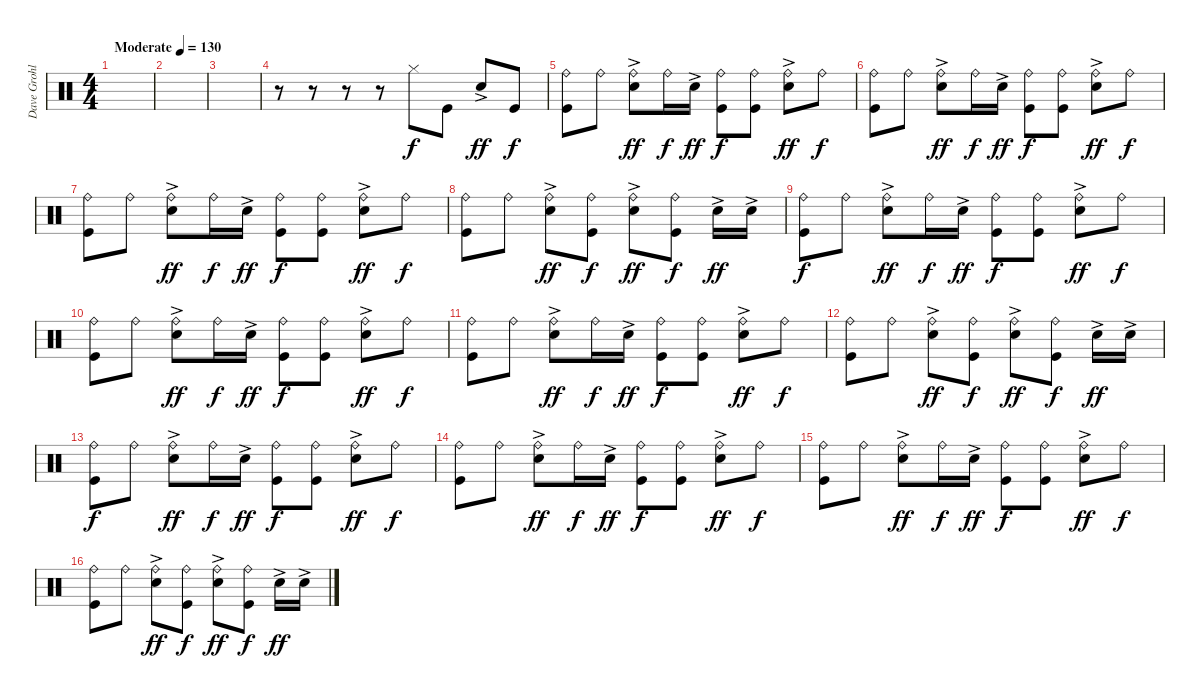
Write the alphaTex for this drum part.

\track ("Dave Grohl" "Dave Grohl") {instrument percussion}
\staff {score}
\articulation defaults
\ts (4 4)
\tempo (130 "Moderate")
\clef neutral
\ks c
|
|
|
r.8 r.8 r.8 r.8 "Hi-Hat (closed)".8 "Kick (hit)".8 "Electric Snare (hit)"{ac}.8{dy ff} "Kick (hit)".8{dy f} |
("Ride (bell)" "Kick (hit)").8 "Ride (bell)".8 ("Ride (bell)" "Electric Snare (hit)"{ac}).8{dy ff} "Ride (bell)".16{dy f} "Electric Snare (hit)"{ac}.16{dy ff} ("Ride (bell)" "Kick (hit)").8{dy f} ("Ride (bell)" "Kick (hit)").8 ("Ride (bell)" "Electric Snare (hit)"{ac}).8{dy ff} "Ride (bell)".8{dy f} |
("Ride (bell)" "Kick (hit)").8 "Ride (bell)".8 ("Ride (bell)" "Electric Snare (hit)"{ac}).8{dy ff} "Ride (bell)".16{dy f} "Electric Snare (hit)"{ac}.16{dy ff} ("Ride (bell)" "Kick (hit)").8{dy f} ("Ride (bell)" "Kick (hit)").8 ("Ride (bell)" "Electric Snare (hit)"{ac}).8{dy ff} "Ride (bell)".8{dy f} |
("Ride (bell)" "Kick (hit)").8 "Ride (bell)".8 ("Ride (bell)" "Electric Snare (hit)"{ac}).8{dy ff} "Ride (bell)".16{dy f} "Electric Snare (hit)"{ac}.16{dy ff} ("Ride (bell)" "Kick (hit)").8{dy f} ("Ride (bell)" "Kick (hit)").8 ("Ride (bell)" "Electric Snare (hit)"{ac}).8{dy ff} "Ride (bell)".8{dy f} |
("Ride (bell)" "Kick (hit)").8 "Ride (bell)".8 ("Ride (bell)" "Electric Snare (hit)"{ac}).8{dy ff} ("Ride (bell)" "Kick (hit)").8{dy f} ("Ride (bell)" "Electric Snare (hit)"{ac}).8{dy ff} ("Ride (bell)" "Kick (hit)").8{dy f} "Electric Snare (hit)"{ac}.16{dy ff} "Electric Snare (hit)"{ac}.16 |
("Ride (bell)" "Kick (hit)").8{dy f} "Ride (bell)".8 ("Ride (bell)" "Electric Snare (hit)"{ac}).8{dy ff} "Ride (bell)".16{dy f} "Electric Snare (hit)"{ac}.16{dy ff} ("Ride (bell)" "Kick (hit)").8{dy f} ("Ride (bell)" "Kick (hit)").8 ("Ride (bell)" "Electric Snare (hit)"{ac}).8{dy ff} "Ride (bell)".8{dy f} |
("Ride (bell)" "Kick (hit)").8 "Ride (bell)".8 ("Ride (bell)" "Electric Snare (hit)"{ac}).8{dy ff} "Ride (bell)".16{dy f} "Electric Snare (hit)"{ac}.16{dy ff} ("Ride (bell)" "Kick (hit)").8{dy f} ("Ride (bell)" "Kick (hit)").8 ("Ride (bell)" "Electric Snare (hit)"{ac}).8{dy ff} "Ride (bell)".8{dy f} |
("Ride (bell)" "Kick (hit)").8 "Ride (bell)".8 ("Ride (bell)" "Electric Snare (hit)"{ac}).8{dy ff} "Ride (bell)".16{dy f} "Electric Snare (hit)"{ac}.16{dy ff} ("Ride (bell)" "Kick (hit)").8{dy f} ("Ride (bell)" "Kick (hit)").8 ("Ride (bell)" "Electric Snare (hit)"{ac}).8{dy ff} "Ride (bell)".8{dy f} |
("Ride (bell)" "Kick (hit)").8 "Ride (bell)".8 ("Ride (bell)" "Electric Snare (hit)"{ac}).8{dy ff} ("Ride (bell)" "Kick (hit)").8{dy f} ("Ride (bell)" "Electric Snare (hit)"{ac}).8{dy ff} ("Ride (bell)" "Kick (hit)").8{dy f} "Electric Snare (hit)"{ac}.16{dy ff} "Electric Snare (hit)"{ac}.16 |
("Ride (bell)" "Kick (hit)").8{dy f} "Ride (bell)".8 ("Ride (bell)" "Electric Snare (hit)"{ac}).8{dy ff} "Ride (bell)".16{dy f} "Electric Snare (hit)"{ac}.16{dy ff} ("Ride (bell)" "Kick (hit)").8{dy f} ("Ride (bell)" "Kick (hit)").8 ("Ride (bell)" "Electric Snare (hit)"{ac}).8{dy ff} "Ride (bell)".8{dy f} |
("Ride (bell)" "Kick (hit)").8 "Ride (bell)".8 ("Ride (bell)" "Electric Snare (hit)"{ac}).8{dy ff} "Ride (bell)".16{dy f} "Electric Snare (hit)"{ac}.16{dy ff} ("Ride (bell)" "Kick (hit)").8{dy f} ("Ride (bell)" "Kick (hit)").8 ("Ride (bell)" "Electric Snare (hit)"{ac}).8{dy ff} "Ride (bell)".8{dy f} |
("Ride (bell)" "Kick (hit)").8 "Ride (bell)".8 ("Ride (bell)" "Electric Snare (hit)"{ac}).8{dy ff} "Ride (bell)".16{dy f} "Electric Snare (hit)"{ac}.16{dy ff} ("Ride (bell)" "Kick (hit)").8{dy f} ("Ride (bell)" "Kick (hit)").8 ("Ride (bell)" "Electric Snare (hit)"{ac}).8{dy ff} "Ride (bell)".8{dy f} |
("Ride (bell)" "Kick (hit)").8 "Ride (bell)".8 ("Ride (bell)" "Electric Snare (hit)"{ac}).8{dy ff} ("Ride (bell)" "Kick (hit)").8{dy f} ("Ride (bell)" "Electric Snare (hit)"{ac}).8{dy ff} ("Ride (bell)" "Kick (hit)").8{dy f} "Electric Snare (hit)"{ac}.16{dy ff} "Electric Snare (hit)"{ac}.16
